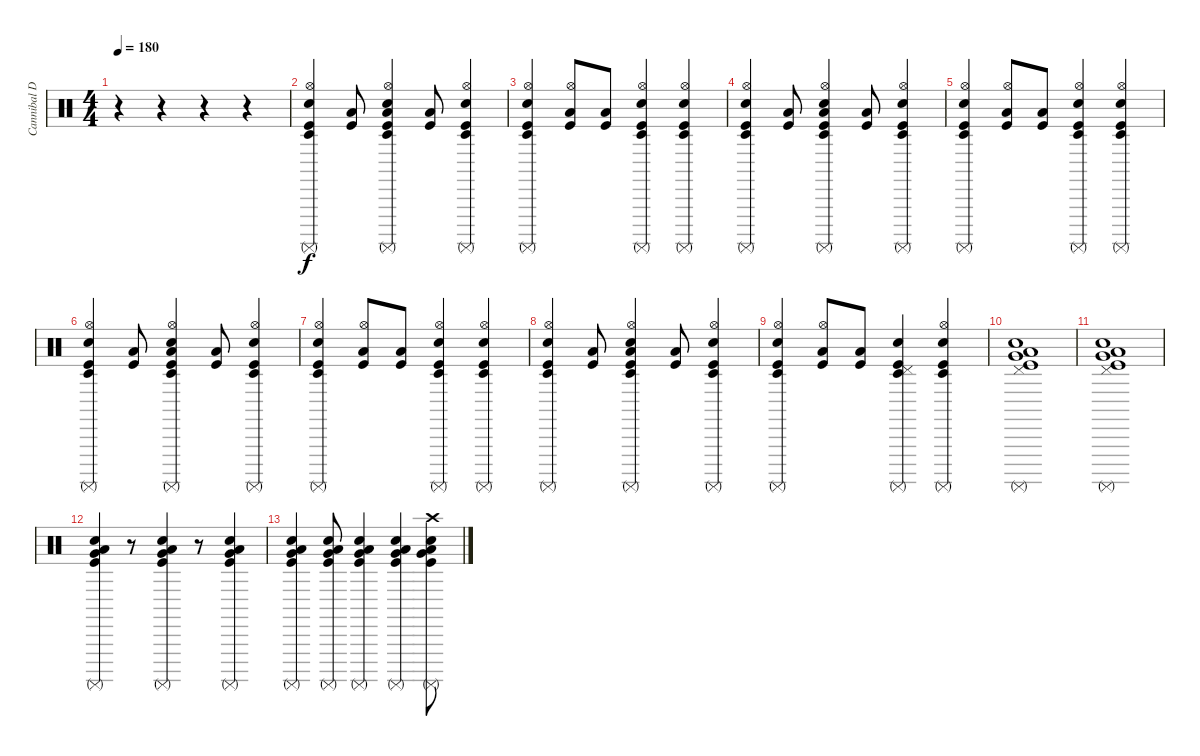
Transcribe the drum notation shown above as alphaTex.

\track ("Cannibal Drums :)" "Cannibal D") {instrument percussion}
\staff {score}
\articulation defaults
\ts (4 4)
\tempo 180
\clef neutral
\ks c
r.4{dy f} r.4 r.4 r.4 |
("Kick (hit)" "Hi-Hat (open)" "Surdo (mute)" "Timbale low (hit)" "Snare (hit) 2").4 ("Kick (hit)" "Low Floor Tom (hit)").8 ("Kick (hit)" "Hi-Hat (open)" "Timbale low (hit)" "Low Tom (hit)" "Snare (hit) 2" "Surdo (mute)").4 ("Kick (hit)" "Low Floor Tom (hit)").8 ("Kick (hit)" "Hi-Hat (open)" "Timbale low (hit)" "Surdo (mute)" "Snare (hit) 2").4 |
("Kick (hit)" "Hi-Hat (open)" "Timbale low (hit)" "Surdo (mute)" "Snare (hit) 2").4 ("Kick (hit)" "Hi-Hat (open)" "Low Floor Tom (hit)").8 ("Kick (hit)" "Low Floor Tom (hit)").8 ("Kick (hit)" "Hi-Hat (open)" "Timbale low (hit)" "Surdo (mute)" "Snare (hit) 2").4 ("Kick (hit)" "Hi-Hat (open)" "Timbale low (hit)" "Surdo (mute)" "Snare (hit) 2").4 |
("Kick (hit)" "Hi-Hat (open)" "Surdo (mute)" "Timbale low (hit)" "Snare (hit) 2").4 ("Kick (hit)" "Low Floor Tom (hit)").8 ("Kick (hit)" "Hi-Hat (open)" "Timbale low (hit)" "Low Tom (hit)" "Snare (hit) 2" "Surdo (mute)").4 ("Kick (hit)" "Low Floor Tom (hit)").8 ("Kick (hit)" "Hi-Hat (open)" "Timbale low (hit)" "Surdo (mute)" "Snare (hit) 2").4 |
("Kick (hit)" "Hi-Hat (open)" "Timbale low (hit)" "Surdo (mute)" "Snare (hit) 2").4 ("Kick (hit)" "Hi-Hat (open)" "Low Floor Tom (hit)").8 ("Kick (hit)" "Low Floor Tom (hit)").8 ("Kick (hit)" "Hi-Hat (open)" "Timbale low (hit)" "Surdo (mute)" "Snare (hit) 2").4 ("Kick (hit)" "Hi-Hat (open)" "Timbale low (hit)" "Surdo (mute)" "Snare (hit) 2").4 |
("Kick (hit)" "Hi-Hat (open)" "Surdo (mute)" "Timbale low (hit)" "Snare (hit) 2").4 ("Kick (hit)" "Low Floor Tom (hit)").8 ("Kick (hit)" "Hi-Hat (open)" "Timbale low (hit)" "Low Tom (hit)" "Snare (hit) 2" "Surdo (mute)").4 ("Kick (hit)" "Low Floor Tom (hit)").8 ("Kick (hit)" "Hi-Hat (open)" "Timbale low (hit)" "Surdo (mute)" "Snare (hit) 2").4 |
("Kick (hit)" "Hi-Hat (open)" "Timbale low (hit)" "Surdo (mute)" "Snare (hit) 2").4 ("Kick (hit)" "Hi-Hat (open)" "Low Floor Tom (hit)").8 ("Kick (hit)" "Low Floor Tom (hit)").8 ("Kick (hit)" "Hi-Hat (open)" "Timbale low (hit)" "Surdo (mute)" "Snare (hit) 2").4 ("Kick (hit)" "Hi-Hat (open)" "Timbale low (hit)" "Surdo (mute)" "Snare (hit) 2").4 |
("Kick (hit)" "Hi-Hat (open)" "Surdo (mute)" "Timbale low (hit)" "Snare (hit) 2").4 ("Kick (hit)" "Low Floor Tom (hit)").8 ("Kick (hit)" "Hi-Hat (open)" "Timbale low (hit)" "Low Tom (hit)" "Snare (hit) 2" "Surdo (mute)").4 ("Kick (hit)" "Low Floor Tom (hit)").8 ("Kick (hit)" "Hi-Hat (open)" "Timbale low (hit)" "Surdo (mute)" "Snare (hit) 2").4 |
("Kick (hit)" "Hi-Hat (open)" "Timbale low (hit)" "Surdo (mute)" "Snare (hit) 2").4 ("Kick (hit)" "Hi-Hat (open)" "Low Floor Tom (hit)").8 ("Kick (hit)" "Low Floor Tom (hit)").8 ("Kick (hit)" "Pedal Hi-Hat (hit)" "Timbale low (hit)" "Surdo (mute)" "Snare (hit) 2").4 ("Kick (hit)" "Hi-Hat (open)" "Timbale low (hit)" "Surdo (mute)" "Snare (hit) 2").4 |
("Kick (hit)" "Very Low Tom (hit)" "Low Floor Tom (hit)" "Surdo (mute)" "Snare (hit) 2" "Pedal Hi-Hat (hit)").1 |
("Kick (hit)" "Very Low Tom (hit)" "Low Floor Tom (hit)" "Surdo (mute)" "Snare (hit) 2" "Pedal Hi-Hat (hit)").1 |
("Kick (hit)" "Very Low Tom (hit)" "Low Floor Tom (hit)" "Surdo (mute)" "Snare (hit) 2").4 r.8 ("Kick (hit)" "Very Low Tom (hit)" "Low Floor Tom (hit)" "Surdo (mute)" "Snare (hit) 2").4 r.8 ("Kick (hit)" "Very Low Tom (hit)" "Low Floor Tom (hit)" "Surdo (mute)" "Snare (hit) 2").4 |
("Kick (hit)" "Very Low Tom (hit)" "Low Floor Tom (hit)" "Surdo (mute)" "Snare (hit) 2").4 ("Kick (hit)" "Very Low Tom (hit)" "Low Floor Tom (hit)" "Surdo (mute)" "Snare (hit) 2").8 ("Kick (hit)" "Very Low Tom (hit)" "Low Floor Tom (hit)" "Surdo (mute)" "Snare (hit) 2").4 ("Kick (hit)" "Very Low Tom (hit)" "Low Floor Tom (hit)" "Surdo (mute)" "Snare (hit) 2").4 ("Kick (hit)" "Very Low Tom (hit)" "Low Floor Tom (hit)" "Surdo (mute)" "Snare (hit) 2" "Crash high (hit)").8
